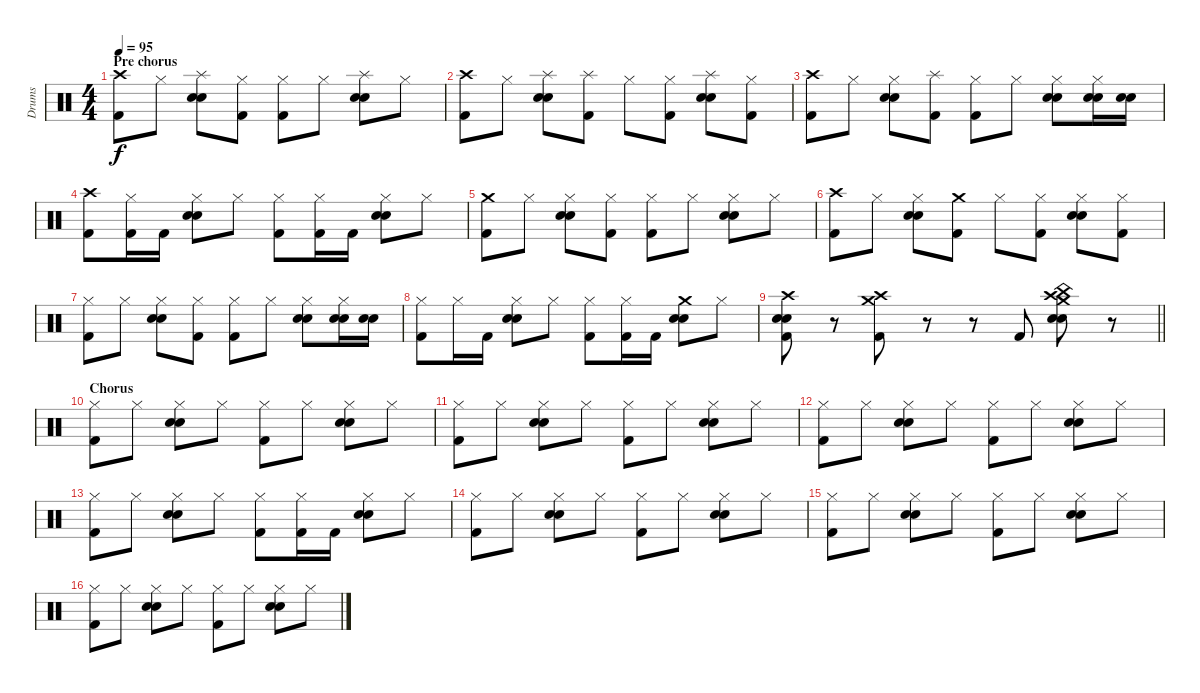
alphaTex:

\track ("Drums" "Drums") {instrument percussion}
\staff {score}
\articulation defaults
\ts (4 4)
\section ("" "Pre chorus")
\tempo 95
\clef neutral
\ks aminor
("Crash high (hit)" "Kick (hit) 2").8{dy f} "Hi-Hat (closed)".8 ("Splash (hit)" "Snare (hit) 2" "Electric Snare (hit)").8 ("Hi-Hat (closed)" "Kick (hit) 2").8 ("Hi-Hat (closed)" "Kick (hit) 2").8 "Hi-Hat (closed)".8 ("Splash (hit)" "Snare (hit) 2" "Electric Snare (hit)").8 "Hi-Hat (closed)".8 |
("Crash high (hit)" "Kick (hit) 2").8 "Hi-Hat (closed)".8 ("Splash (hit)" "Snare (hit) 2" "Electric Snare (hit)").8 ("Splash (hit)" "Kick (hit) 2").8 "Hi-Hat (closed)".8 ("Hi-Hat (closed)" "Kick (hit) 2").8 ("Splash (hit)" "Snare (hit) 2" "Electric Snare (hit)").8 ("Hi-Hat (closed)" "Kick (hit) 2").8 |
("Crash high (hit)" "Kick (hit) 2").8 "Hi-Hat (closed)".8 ("Hi-Hat (closed)" "Snare (hit) 2" "Electric Snare (hit)").8 ("Splash (hit)" "Kick (hit) 2").8 ("Hi-Hat (closed)" "Kick (hit) 2").8 "Hi-Hat (closed)".8 ("Hi-Hat (closed)" "Snare (hit) 2" "Electric Snare (hit)").8 ("Hi-Hat (closed)" "Snare (hit) 2" "Electric Snare (hit)").16 ("Snare (hit) 2" "Electric Snare (hit)").16 |
("Crash high (hit)" "Kick (hit) 2").8 ("Hi-Hat (closed)" "Kick (hit) 2").16 "Kick (hit) 2".16 ("Hi-Hat (closed)" "Snare (hit) 2" "Electric Snare (hit)").8 "Hi-Hat (closed)".8 ("Hi-Hat (closed)" "Kick (hit) 2").8 ("Hi-Hat (closed)" "Kick (hit) 2").16 "Kick (hit) 2".16 ("Hi-Hat (closed)" "Snare (hit) 2" "Electric Snare (hit)").8 "Hi-Hat (closed)".8 |
("Crash medium (hit)" "Kick (hit) 2").8 "Hi-Hat (closed)".8 ("Hi-Hat (closed)" "Snare (hit) 2" "Electric Snare (hit)").8 ("Hi-Hat (closed)" "Kick (hit) 2").8 ("Hi-Hat (closed)" "Kick (hit) 2").8 "Hi-Hat (closed)".8 ("Hi-Hat (closed)" "Snare (hit) 2" "Electric Snare (hit)").8 "Hi-Hat (closed)".8 |
("Crash high (hit)" "Kick (hit) 2").8 "Hi-Hat (closed)".8 ("Hi-Hat (closed)" "Snare (hit) 2" "Electric Snare (hit)").8 ("Crash medium (hit)" "Kick (hit) 2").8 "Hi-Hat (closed)".8 ("Hi-Hat (closed)" "Kick (hit) 2").8 ("Hi-Hat (closed)" "Snare (hit) 2" "Electric Snare (hit)").8 ("Hi-Hat (closed)" "Kick (hit) 2").8 |
("Hi-Hat (closed)" "Kick (hit) 2").8 "Hi-Hat (closed)".8 ("Hi-Hat (closed)" "Snare (hit) 2" "Electric Snare (hit)").8 ("Hi-Hat (closed)" "Kick (hit) 2").8 ("Hi-Hat (closed)" "Kick (hit) 2").8 "Hi-Hat (closed)".8 ("Hi-Hat (closed)" "Snare (hit) 2" "Electric Snare (hit)").8 ("Hi-Hat (closed)" "Snare (hit) 2" "Electric Snare (hit)").16 ("Snare (hit) 2" "Electric Snare (hit)").16 |
("Hi-Hat (closed)" "Kick (hit) 2").8 "Hi-Hat (closed)".16 "Kick (hit) 2".16 ("Hi-Hat (closed)" "Snare (hit) 2" "Electric Snare (hit)").8 "Hi-Hat (closed)".8 ("Hi-Hat (closed)" "Kick (hit) 2").8 ("Hi-Hat (closed)" "Kick (hit) 2").16 "Kick (hit) 2".16 ("Crash medium (hit)" "Snare (hit) 2" "Electric Snare (hit)").8 "Hi-Hat (closed)".8 |
\barLineRight lightlight
("Crash high (hit)" "Snare (hit) 2" "Electric Snare (hit)" "Kick (hit) 2").8 r.8 ("Crash high (hit)" "Crash medium (hit)" "Kick (hit) 2").8 r.8 r.8 "Kick (hit) 2".8 ("Crash high (hit)" "Crash medium (hit)" "China (hit)" "Snare (hit) 2" "Electric Snare (hit)").8 r.8 |
\section ("" "Chorus")
("Hi-Hat (closed)" "Kick (hit) 2").8 "Hi-Hat (closed)".8 ("Hi-Hat (closed)" "Snare (hit) 2" "Electric Snare (hit)").8 "Hi-Hat (closed)".8 ("Hi-Hat (closed)" "Kick (hit) 2").8 "Hi-Hat (closed)".8 ("Hi-Hat (closed)" "Snare (hit) 2" "Electric Snare (hit)").8 "Hi-Hat (closed)".8 |
("Hi-Hat (closed)" "Kick (hit) 2").8 "Hi-Hat (closed)".8 ("Hi-Hat (closed)" "Snare (hit) 2" "Electric Snare (hit)").8 "Hi-Hat (closed)".8 ("Hi-Hat (closed)" "Kick (hit) 2").8 "Hi-Hat (closed)".8 ("Hi-Hat (closed)" "Snare (hit) 2" "Electric Snare (hit)").8 "Hi-Hat (closed)".8 |
("Hi-Hat (closed)" "Kick (hit) 2").8 "Hi-Hat (closed)".8 ("Hi-Hat (closed)" "Snare (hit) 2" "Electric Snare (hit)").8 "Hi-Hat (closed)".8 ("Hi-Hat (closed)" "Kick (hit) 2").8 "Hi-Hat (closed)".8 ("Hi-Hat (closed)" "Snare (hit) 2" "Electric Snare (hit)").8 "Hi-Hat (closed)".8 |
("Hi-Hat (closed)" "Kick (hit) 2").8 "Hi-Hat (closed)".8 ("Hi-Hat (closed)" "Snare (hit) 2" "Electric Snare (hit)").8 "Hi-Hat (closed)".8 ("Hi-Hat (closed)" "Kick (hit) 2").8 ("Hi-Hat (closed)" "Kick (hit) 2").16 "Kick (hit) 2".16 ("Hi-Hat (closed)" "Snare (hit) 2" "Electric Snare (hit)").8 "Hi-Hat (closed)".8 |
("Hi-Hat (closed)" "Kick (hit) 2").8 "Hi-Hat (closed)".8 ("Hi-Hat (closed)" "Snare (hit) 2" "Electric Snare (hit)").8 "Hi-Hat (closed)".8 ("Hi-Hat (closed)" "Kick (hit) 2").8 "Hi-Hat (closed)".8 ("Hi-Hat (closed)" "Snare (hit) 2" "Electric Snare (hit)").8 "Hi-Hat (closed)".8 |
("Hi-Hat (closed)" "Kick (hit) 2").8 "Hi-Hat (closed)".8 ("Hi-Hat (closed)" "Snare (hit) 2" "Electric Snare (hit)").8 "Hi-Hat (closed)".8 ("Hi-Hat (closed)" "Kick (hit) 2").8 "Hi-Hat (closed)".8 ("Hi-Hat (closed)" "Snare (hit) 2" "Electric Snare (hit)").8 "Hi-Hat (closed)".8 |
("Hi-Hat (closed)" "Kick (hit) 2").8 "Hi-Hat (closed)".8 ("Hi-Hat (closed)" "Snare (hit) 2" "Electric Snare (hit)").8 "Hi-Hat (closed)".8 ("Hi-Hat (closed)" "Kick (hit) 2").8 "Hi-Hat (closed)".8 ("Hi-Hat (closed)" "Snare (hit) 2" "Electric Snare (hit)").8 "Hi-Hat (closed)".8
